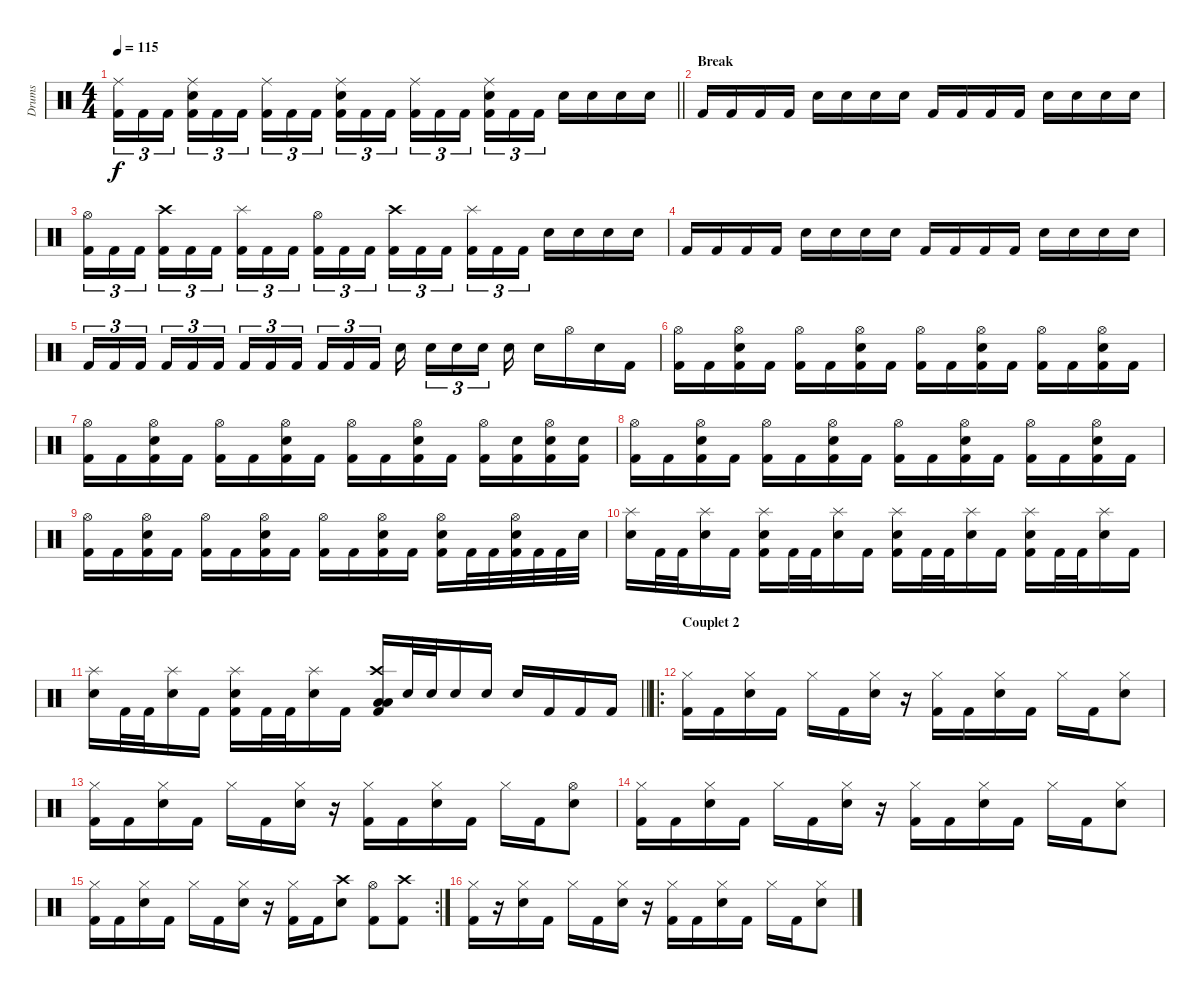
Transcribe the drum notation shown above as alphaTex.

\track ("Drums" "Drums") {instrument percussion}
\staff {score}
\articulation defaults
\ts (4 4)
\tempo 115
\clef neutral
\barLineRight lightlight
\ks c
("Ride (middle)" "Kick (hit) 2").16{tu (3 2) dy f} "Kick (hit) 2".16{tu (3 2)} "Kick (hit) 2".16{tu (3 2) beam splitsecondary} ("Ride (middle)" "Electric Snare (hit)" "Kick (hit) 2").16{tu (3 2)} "Kick (hit) 2".16{tu (3 2)} "Kick (hit) 2".16{tu (3 2)} ("Ride (middle)" "Kick (hit) 2").16{tu (3 2)} "Kick (hit) 2".16{tu (3 2)} "Kick (hit) 2".16{tu (3 2) beam splitsecondary} ("Ride (middle)" "Electric Snare (hit)" "Kick (hit) 2").16{tu (3 2)} "Kick (hit) 2".16{tu (3 2)} "Kick (hit) 2".16{tu (3 2)} ("Ride (middle)" "Kick (hit) 2").16{tu (3 2)} "Kick (hit) 2".16{tu (3 2)} "Kick (hit) 2".16{tu (3 2) beam splitsecondary} ("Ride (middle)" "Electric Snare (hit)" "Kick (hit) 2").16{tu (3 2)} "Kick (hit) 2".16{tu (3 2)} "Kick (hit) 2".16{tu (3 2)} "Electric Snare (hit)".16 "Electric Snare (hit)".16 "Electric Snare (hit)".16 "Electric Snare (hit)".16 |
\section ("" "Break")
"Kick (hit) 2".16 "Kick (hit) 2".16 "Kick (hit) 2".16 "Kick (hit) 2".16 "Electric Snare (hit)".16 "Electric Snare (hit)".16 "Electric Snare (hit)".16 "Electric Snare (hit)".16 "Kick (hit) 2".16 "Kick (hit) 2".16 "Kick (hit) 2".16 "Kick (hit) 2".16 "Electric Snare (hit)".16 "Electric Snare (hit)".16 "Electric Snare (hit)".16 "Electric Snare (hit)".16 |
("Hi-Hat (open)" "Kick (hit) 2").16{tu (3 2)} "Kick (hit) 2".16{tu (3 2)} "Kick (hit) 2".16{tu (3 2) beam splitsecondary} ("Crash high (hit)" "Kick (hit) 2").16{tu (3 2)} "Kick (hit) 2".16{tu (3 2)} "Kick (hit) 2".16{tu (3 2)} ("Splash (hit)" "Kick (hit) 2").16{tu (3 2)} "Kick (hit) 2".16{tu (3 2)} "Kick (hit) 2".16{tu (3 2) beam splitsecondary} ("Hi-Hat (open)" "Kick (hit) 2").16{tu (3 2)} "Kick (hit) 2".16{tu (3 2)} "Kick (hit) 2".16{tu (3 2)} ("Crash high (hit)" "Kick (hit) 2").16{tu (3 2)} "Kick (hit) 2".16{tu (3 2)} "Kick (hit) 2".16{tu (3 2) beam splitsecondary} ("Splash (hit)" "Kick (hit) 2").16{tu (3 2)} "Kick (hit) 2".16{tu (3 2)} "Kick (hit) 2".16{tu (3 2)} "Electric Snare (hit)".16 "Electric Snare (hit)".16 "Electric Snare (hit)".16 "Electric Snare (hit)".16 |
"Kick (hit) 2".16 "Kick (hit) 2".16 "Kick (hit) 2".16 "Kick (hit) 2".16 "Electric Snare (hit)".16 "Electric Snare (hit)".16 "Electric Snare (hit)".16 "Electric Snare (hit)".16 "Kick (hit) 2".16 "Kick (hit) 2".16 "Kick (hit) 2".16 "Kick (hit) 2".16 "Electric Snare (hit)".16 "Electric Snare (hit)".16 "Electric Snare (hit)".16 "Electric Snare (hit)".16 |
"Kick (hit) 2".16{tu (3 2)} "Kick (hit) 2".16{tu (3 2)} "Kick (hit) 2".16{tu (3 2) beam splitsecondary} "Kick (hit) 2".16{tu (3 2)} "Kick (hit) 2".16{tu (3 2)} "Kick (hit) 2".16{tu (3 2)} "Kick (hit) 2".16{tu (3 2)} "Kick (hit) 2".16{tu (3 2)} "Kick (hit) 2".16{tu (3 2) beam splitsecondary} "Kick (hit) 2".16{tu (3 2)} "Kick (hit) 2".16{tu (3 2)} "Kick (hit) 2".16{tu (3 2)} "Electric Snare (hit)".16{beam splitsecondary} "Electric Snare (hit)".16{tu (3 2)} "Electric Snare (hit)".16{tu (3 2)} "Electric Snare (hit)".16{tu (3 2) beam splitsecondary} "Electric Snare (hit)".16 "Electric Snare (hit)".16 "Hi-Hat (open)".16 "Electric Snare (hit)".16 "Kick (hit) 2".16 |
("Hi-Hat (open)" "Kick (hit) 2").16 "Kick (hit) 2".16 ("Hi-Hat (open)" "Electric Snare (hit)" "Kick (hit) 2").16 "Kick (hit) 2".16 ("Hi-Hat (open)" "Kick (hit) 2").16 "Kick (hit) 2".16 ("Hi-Hat (open)" "Electric Snare (hit)" "Kick (hit) 2").16 "Kick (hit) 2".16 ("Hi-Hat (open)" "Kick (hit) 2").16 "Kick (hit) 2".16 ("Hi-Hat (open)" "Electric Snare (hit)" "Kick (hit) 2").16 "Kick (hit) 2".16 ("Hi-Hat (open)" "Kick (hit) 2").16 "Kick (hit) 2".16 ("Hi-Hat (open)" "Electric Snare (hit)" "Kick (hit) 2").16 "Kick (hit) 2".16 |
("Hi-Hat (open)" "Kick (hit) 2").16 "Kick (hit) 2".16 ("Hi-Hat (open)" "Electric Snare (hit)" "Kick (hit) 2").16 "Kick (hit) 2".16 ("Hi-Hat (open)" "Kick (hit) 2").16 "Kick (hit) 2".16 ("Hi-Hat (open)" "Electric Snare (hit)" "Kick (hit) 2").16 "Kick (hit) 2".16 ("Hi-Hat (open)" "Kick (hit) 2").16 "Kick (hit) 2".16 ("Hi-Hat (open)" "Electric Snare (hit)" "Kick (hit) 2").16 "Kick (hit) 2".16 ("Hi-Hat (open)" "Kick (hit) 2").16 ("Electric Snare (hit)" "Kick (hit) 2").16 ("Hi-Hat (open)" "Electric Snare (hit)" "Kick (hit) 2").16 ("Electric Snare (hit)" "Kick (hit) 2").16 |
("Hi-Hat (open)" "Kick (hit) 2").16 "Kick (hit) 2".16 ("Hi-Hat (open)" "Electric Snare (hit)" "Kick (hit) 2").16 "Kick (hit) 2".16 ("Hi-Hat (open)" "Kick (hit) 2").16 "Kick (hit) 2".16 ("Hi-Hat (open)" "Electric Snare (hit)" "Kick (hit) 2").16 "Kick (hit) 2".16 ("Hi-Hat (open)" "Kick (hit) 2").16 "Kick (hit) 2".16 ("Hi-Hat (open)" "Electric Snare (hit)" "Kick (hit) 2").16 "Kick (hit) 2".16 ("Hi-Hat (open)" "Kick (hit) 2").16 "Kick (hit) 2".16 ("Hi-Hat (open)" "Electric Snare (hit)" "Kick (hit) 2").16 "Kick (hit) 2".16 |
("Hi-Hat (open)" "Kick (hit) 2").16 "Kick (hit) 2".16 ("Hi-Hat (open)" "Electric Snare (hit)" "Kick (hit) 2").16 "Kick (hit) 2".16 ("Hi-Hat (open)" "Kick (hit) 2").16 "Kick (hit) 2".16 ("Hi-Hat (open)" "Electric Snare (hit)" "Kick (hit) 2").16 "Kick (hit) 2".16 ("Hi-Hat (open)" "Kick (hit) 2").16 "Kick (hit) 2".16 ("Hi-Hat (open)" "Electric Snare (hit)" "Kick (hit) 2").16 "Kick (hit) 2".16 ("Hi-Hat (open)" "Electric Snare (hit)" "Kick (hit) 2").16 "Kick (hit) 2".32 "Kick (hit) 2".32 ("Hi-Hat (open)" "Electric Snare (hit)" "Kick (hit) 2").32 "Kick (hit) 2".32 "Kick (hit) 2".32 "Electric Snare (hit)".32 |
("Splash (hit)" "Electric Snare (hit)").16 "Kick (hit) 2".32 "Kick (hit) 2".32 ("Splash (hit)" "Electric Snare (hit)").16 "Kick (hit) 2".16 ("Splash (hit)" "Electric Snare (hit)" "Kick (hit) 2").16 "Kick (hit) 2".32 "Kick (hit) 2".32 ("Splash (hit)" "Electric Snare (hit)").16 "Kick (hit) 2".16 ("Splash (hit)" "Electric Snare (hit)" "Kick (hit) 2").16 "Kick (hit) 2".32 "Kick (hit) 2".32 ("Splash (hit)" "Electric Snare (hit)").16 "Kick (hit) 2".16 ("Splash (hit)" "Electric Snare (hit)" "Kick (hit) 2").16 "Kick (hit) 2".32 "Kick (hit) 2".32 ("Splash (hit)" "Electric Snare (hit)").16 "Kick (hit) 2".16 |
\barLineRight lightlight
("Splash (hit)" "Electric Snare (hit)").16 "Kick (hit) 2".32 "Kick (hit) 2".32 ("Splash (hit)" "Electric Snare (hit)").16 "Kick (hit) 2".16 ("Splash (hit)" "Electric Snare (hit)" "Kick (hit) 2").16 "Kick (hit) 2".32 "Kick (hit) 2".32 ("Splash (hit)" "Electric Snare (hit)").16 "Kick (hit) 2".16 ("Crash high (hit)" "Low Tom (hit)" "Low Tom (hit)" "Kick (hit) 2").16 "Electric Snare (hit)".32 "Electric Snare (hit)".32 "Electric Snare (hit)".16 "Electric Snare (hit)".16 "Electric Snare (hit)".16 "Kick (hit) 2".16 "Kick (hit) 2".16 "Kick (hit) 2".16 |
\ro
\section ("" "Couplet 2")
("Hi-Hat (closed)" "Kick (hit) 2").16 "Kick (hit) 2".16 ("Hi-Hat (closed)" "Electric Snare (hit)").16 "Kick (hit) 2".16 "Hi-Hat (closed)".16 "Kick (hit) 2".16 ("Hi-Hat (closed)" "Electric Snare (hit)").16 r.16 ("Hi-Hat (closed)" "Kick (hit) 2").16 "Kick (hit) 2".16 ("Hi-Hat (closed)" "Electric Snare (hit)").16 "Kick (hit) 2".16 "Hi-Hat (closed)".16 "Kick (hit) 2".16 ("Hi-Hat (closed)" "Electric Snare (hit)").8 |
("Hi-Hat (closed)" "Kick (hit) 2").16 "Kick (hit) 2".16 ("Hi-Hat (closed)" "Electric Snare (hit)").16 "Kick (hit) 2".16 "Hi-Hat (closed)".16 "Kick (hit) 2".16 ("Hi-Hat (closed)" "Electric Snare (hit)").16 r.16 ("Hi-Hat (closed)" "Kick (hit) 2").16 "Kick (hit) 2".16 ("Hi-Hat (closed)" "Electric Snare (hit)").16 "Kick (hit) 2".16 "Hi-Hat (closed)".16 "Kick (hit) 2".16 ("Hi-Hat (open)" "Electric Snare (hit)").8 |
("Hi-Hat (closed)" "Kick (hit) 2").16 "Kick (hit) 2".16 ("Hi-Hat (closed)" "Electric Snare (hit)").16 "Kick (hit) 2".16 "Hi-Hat (closed)".16 "Kick (hit) 2".16 ("Hi-Hat (closed)" "Electric Snare (hit)").16 r.16 ("Hi-Hat (closed)" "Kick (hit) 2").16 "Kick (hit) 2".16 ("Hi-Hat (closed)" "Electric Snare (hit)").16 "Kick (hit) 2".16 "Hi-Hat (closed)".16 "Kick (hit) 2".16 ("Hi-Hat (closed)" "Electric Snare (hit)").8 |
\rc 2
("Hi-Hat (closed)" "Kick (hit) 2").16 "Kick (hit) 2".16 ("Hi-Hat (closed)" "Electric Snare (hit)").16 "Kick (hit) 2".16 "Hi-Hat (closed)".16 "Kick (hit) 2".16 ("Hi-Hat (closed)" "Electric Snare (hit)").16 r.16 ("Hi-Hat (closed)" "Kick (hit) 2").16 "Kick (hit) 2".16 ("Crash high (hit)" "Electric Snare (hit)").8 ("Hi-Hat (open)" "Kick (hit) 2").8 ("Crash high (hit)" "Kick (hit) 2").8 |
("Hi-Hat (closed)" "Kick (hit) 2").16 r.16 ("Hi-Hat (closed)" "Electric Snare (hit)").16 "Kick (hit) 2".16 "Hi-Hat (closed)".16 "Kick (hit) 2".16 ("Hi-Hat (closed)" "Electric Snare (hit)").16 r.16 ("Hi-Hat (closed)" "Kick (hit) 2").16 "Kick (hit) 2".16 ("Hi-Hat (closed)" "Electric Snare (hit)").16 "Kick (hit) 2".16 "Hi-Hat (closed)".16 "Kick (hit) 2".16 ("Hi-Hat (closed)" "Electric Snare (hit)").8
